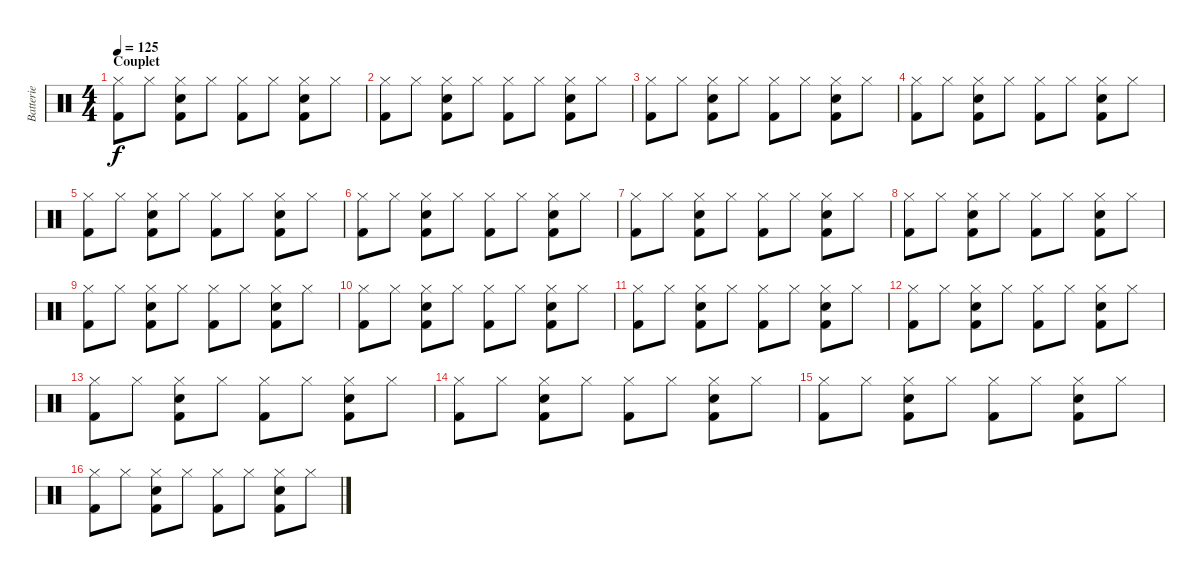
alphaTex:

\track ("Batterie" "Batterie") {instrument percussion}
\staff {score}
\articulation defaults
\ts (4 4)
\section ("" "Couplet")
\tempo 125
\clef neutral
\ks c
("Hi-Hat (closed)" "Kick (hit) 2").8{dy f} "Hi-Hat (closed)".8 ("Hi-Hat (closed)" "Snare (hit) 2" "Kick (hit) 2").8 "Hi-Hat (closed)".8 ("Hi-Hat (closed)" "Kick (hit) 2").8 "Hi-Hat (closed)".8 ("Hi-Hat (closed)" "Snare (hit) 2" "Kick (hit) 2").8 "Hi-Hat (closed)".8 |
("Hi-Hat (closed)" "Kick (hit) 2").8 "Hi-Hat (closed)".8 ("Hi-Hat (closed)" "Snare (hit) 2" "Kick (hit) 2").8 "Hi-Hat (closed)".8 ("Hi-Hat (closed)" "Kick (hit) 2").8 "Hi-Hat (closed)".8 ("Hi-Hat (closed)" "Snare (hit) 2" "Kick (hit) 2").8 "Hi-Hat (closed)".8 |
("Hi-Hat (closed)" "Kick (hit) 2").8 "Hi-Hat (closed)".8 ("Hi-Hat (closed)" "Snare (hit) 2" "Kick (hit) 2").8 "Hi-Hat (closed)".8 ("Hi-Hat (closed)" "Kick (hit) 2").8 "Hi-Hat (closed)".8 ("Hi-Hat (closed)" "Snare (hit) 2" "Kick (hit) 2").8 "Hi-Hat (closed)".8 |
("Hi-Hat (closed)" "Kick (hit) 2").8 "Hi-Hat (closed)".8 ("Hi-Hat (closed)" "Snare (hit) 2" "Kick (hit) 2").8 "Hi-Hat (closed)".8 ("Hi-Hat (closed)" "Kick (hit) 2").8 "Hi-Hat (closed)".8 ("Hi-Hat (closed)" "Snare (hit) 2" "Kick (hit) 2").8 "Hi-Hat (closed)".8 |
("Hi-Hat (closed)" "Kick (hit) 2").8 "Hi-Hat (closed)".8 ("Hi-Hat (closed)" "Snare (hit) 2" "Kick (hit) 2").8 "Hi-Hat (closed)".8 ("Hi-Hat (closed)" "Kick (hit) 2").8 "Hi-Hat (closed)".8 ("Hi-Hat (closed)" "Snare (hit) 2" "Kick (hit) 2").8 "Hi-Hat (closed)".8 |
("Hi-Hat (closed)" "Kick (hit) 2").8 "Hi-Hat (closed)".8 ("Hi-Hat (closed)" "Snare (hit) 2" "Kick (hit) 2").8 "Hi-Hat (closed)".8 ("Hi-Hat (closed)" "Kick (hit) 2").8 "Hi-Hat (closed)".8 ("Hi-Hat (closed)" "Snare (hit) 2" "Kick (hit) 2").8 "Hi-Hat (closed)".8 |
("Hi-Hat (closed)" "Kick (hit) 2").8 "Hi-Hat (closed)".8 ("Hi-Hat (closed)" "Snare (hit) 2" "Kick (hit) 2").8 "Hi-Hat (closed)".8 ("Hi-Hat (closed)" "Kick (hit) 2").8 "Hi-Hat (closed)".8 ("Hi-Hat (closed)" "Snare (hit) 2" "Kick (hit) 2").8 "Hi-Hat (closed)".8 |
("Hi-Hat (closed)" "Kick (hit) 2").8 "Hi-Hat (closed)".8 ("Hi-Hat (closed)" "Snare (hit) 2" "Kick (hit) 2").8 "Hi-Hat (closed)".8 ("Hi-Hat (closed)" "Kick (hit) 2").8 "Hi-Hat (closed)".8 ("Hi-Hat (closed)" "Snare (hit) 2" "Kick (hit) 2").8 "Hi-Hat (closed)".8 |
("Hi-Hat (closed)" "Kick (hit) 2").8 "Hi-Hat (closed)".8 ("Hi-Hat (closed)" "Snare (hit) 2" "Kick (hit) 2").8 "Hi-Hat (closed)".8 ("Hi-Hat (closed)" "Kick (hit) 2").8 "Hi-Hat (closed)".8 ("Hi-Hat (closed)" "Snare (hit) 2" "Kick (hit) 2").8 "Hi-Hat (closed)".8 |
("Hi-Hat (closed)" "Kick (hit) 2").8 "Hi-Hat (closed)".8 ("Hi-Hat (closed)" "Snare (hit) 2" "Kick (hit) 2").8 "Hi-Hat (closed)".8 ("Hi-Hat (closed)" "Kick (hit) 2").8 "Hi-Hat (closed)".8 ("Hi-Hat (closed)" "Snare (hit) 2" "Kick (hit) 2").8 "Hi-Hat (closed)".8 |
("Hi-Hat (closed)" "Kick (hit) 2").8 "Hi-Hat (closed)".8 ("Hi-Hat (closed)" "Snare (hit) 2" "Kick (hit) 2").8 "Hi-Hat (closed)".8 ("Hi-Hat (closed)" "Kick (hit) 2").8 "Hi-Hat (closed)".8 ("Hi-Hat (closed)" "Snare (hit) 2" "Kick (hit) 2").8 "Hi-Hat (closed)".8 |
("Hi-Hat (closed)" "Kick (hit) 2").8 "Hi-Hat (closed)".8 ("Hi-Hat (closed)" "Snare (hit) 2" "Kick (hit) 2").8 "Hi-Hat (closed)".8 ("Hi-Hat (closed)" "Kick (hit) 2").8 "Hi-Hat (closed)".8 ("Hi-Hat (closed)" "Snare (hit) 2" "Kick (hit) 2").8 "Hi-Hat (closed)".8 |
("Hi-Hat (closed)" "Kick (hit) 2").8 "Hi-Hat (closed)".8 ("Hi-Hat (closed)" "Snare (hit) 2" "Kick (hit) 2").8 "Hi-Hat (closed)".8 ("Hi-Hat (closed)" "Kick (hit) 2").8 "Hi-Hat (closed)".8 ("Hi-Hat (closed)" "Snare (hit) 2" "Kick (hit) 2").8 "Hi-Hat (closed)".8 |
("Hi-Hat (closed)" "Kick (hit) 2").8 "Hi-Hat (closed)".8 ("Hi-Hat (closed)" "Snare (hit) 2" "Kick (hit) 2").8 "Hi-Hat (closed)".8 ("Hi-Hat (closed)" "Kick (hit) 2").8 "Hi-Hat (closed)".8 ("Hi-Hat (closed)" "Snare (hit) 2" "Kick (hit) 2").8 "Hi-Hat (closed)".8 |
("Hi-Hat (closed)" "Kick (hit) 2").8 "Hi-Hat (closed)".8 ("Hi-Hat (closed)" "Snare (hit) 2" "Kick (hit) 2").8 "Hi-Hat (closed)".8 ("Hi-Hat (closed)" "Kick (hit) 2").8 "Hi-Hat (closed)".8 ("Hi-Hat (closed)" "Snare (hit) 2" "Kick (hit) 2").8 "Hi-Hat (closed)".8 |
("Hi-Hat (closed)" "Kick (hit) 2").8 "Hi-Hat (closed)".8 ("Hi-Hat (closed)" "Snare (hit) 2" "Kick (hit) 2").8 "Hi-Hat (closed)".8 ("Hi-Hat (closed)" "Kick (hit) 2").8 "Hi-Hat (closed)".8 ("Hi-Hat (closed)" "Snare (hit) 2" "Kick (hit) 2").8 "Hi-Hat (closed)".8
